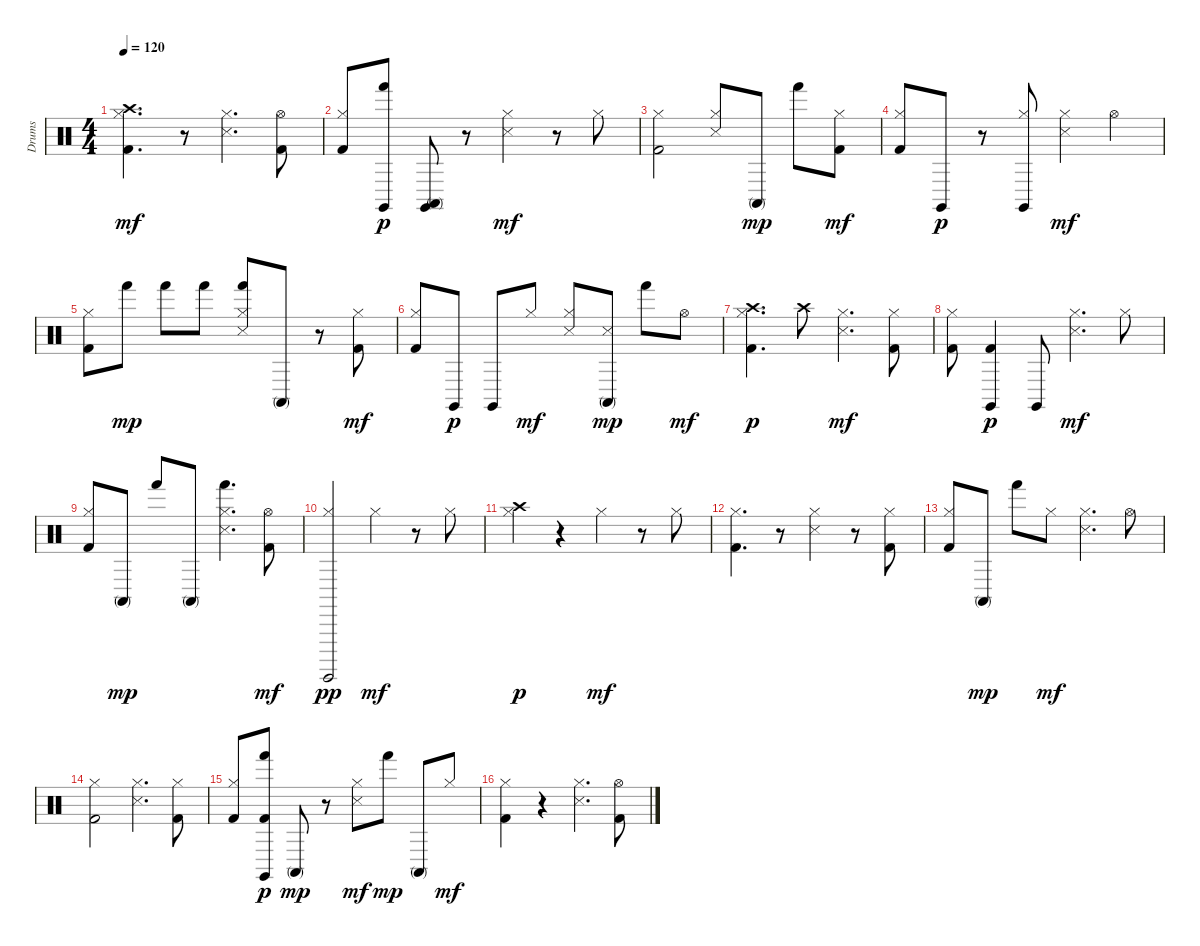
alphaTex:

\track ("Drums" "Drums") {instrument percussion}
\staff {score}
\articulation defaults
\ts (4 4)
\tempo 120
\clef neutral
\ks c
("Crash high (hit)" "Kick (hit) 2" "Hi-Hat (closed)").4{d dy mf} r.8 ("Hi-Hat (closed)" "Snare (side stick) 3").4{d} ("Kick (hit) 2" "Hi-Hat (open)").8 |
("Kick (hit) 2" "Hi-Hat (closed)").8 ("Hand (hit)" "Claves (hit)").8{dy p} ("Conga high (mute)" "Claves (hit)").8 r.8 ("Hi-Hat (closed)" "Snare (side stick) 3").4{dy mf} r.8 "Hi-Hat (closed)".8 |
("Kick (hit) 2" "Hi-Hat (closed)").2 ("Hi-Hat (closed)" "Snare (side stick) 3").8 "Conga high (mute)".8{dy mp} "Hand (hit)".8 ("Kick (hit) 2" "Hi-Hat (closed)").8{dy mf} |
("Kick (hit) 2" "Hi-Hat (closed)").8 "Claves (hit)".8{dy p} r.8 ("Hi-Hat (closed)" "Claves (hit)").8 ("Hi-Hat (closed)" "Snare (side stick) 3").4{dy mf} "Hi-Hat (open)".4 |
("Kick (hit) 2" "Hi-Hat (closed)").8 "Hand (hit)".8{dy mp} "Hand (hit)".8 "Hand (hit)".8 ("Hi-Hat (closed)" "Snare (side stick) 3" "Hand (hit)").8 "Conga high (mute)".8 r.8 ("Kick (hit) 2" "Hi-Hat (closed)").8{dy mf} |
("Kick (hit) 2" "Hi-Hat (closed)").8 "Claves (hit)".8{dy p} "Claves (hit)".8 "Hi-Hat (closed)".8{dy mf} ("Hi-Hat (closed)" "Snare (side stick) 3").8 ("Snare (side stick) 3" "Conga high (mute)").8{dy mp} "Hand (hit)".8 "Hi-Hat (open)".8{dy mf} |
("Kick (hit) 2" "Hi-Hat (closed)" "Crash high (hit)").4{d dy p} "Crash high (hit)".8 ("Hi-Hat (closed)" "Snare (side stick) 3").4{d dy mf} ("Kick (hit) 2" "Hi-Hat (closed)").8 |
("Kick (hit) 2" "Hi-Hat (closed)").8 ("Kick (hit) 2" "Claves (hit)").4{dy p} "Claves (hit)".8 ("Hi-Hat (closed)" "Snare (side stick) 3").4{d dy mf} "Hi-Hat (closed)".8 |
("Kick (hit) 2" "Hi-Hat (closed)").8 "Conga high (mute)".8{dy mp} "Hand (hit)".8 "Conga high (mute)".8 ("Hi-Hat (closed)" "Snare (side stick) 3" "Hand (hit)").4{d} ("Kick (hit) 2" "Hi-Hat (open)").8{dy mf} |
("Hi-Hat (closed)" "Surdo (hit)").2{dy pp} "Hi-Hat (closed)".4{dy mf} r.8 "Hi-Hat (closed)".8 |
("Hi-Hat (closed)" "Crash high (hit)").4{dy p} r.4 "Hi-Hat (closed)".4{dy mf} r.8 "Hi-Hat (closed)".8 |
("Kick (hit) 2" "Hi-Hat (closed)").4{d} r.8 ("Hi-Hat (closed)" "Snare (side stick) 3").4 r.8 ("Kick (hit) 2" "Hi-Hat (closed)").8 |
("Kick (hit) 2" "Hi-Hat (closed)").8 "Conga high (mute)".8{dy mp} "Hand (hit)".8 "Hi-Hat (closed)".8{dy mf} ("Hi-Hat (closed)" "Snare (side stick) 3").4{d} "Hi-Hat (open)".8 |
("Kick (hit) 2" "Hi-Hat (closed)").2 ("Hi-Hat (closed)" "Snare (side stick) 3").4{d} ("Kick (hit) 2" "Hi-Hat (closed)").8 |
("Kick (hit) 2" "Hi-Hat (closed)").8 ("Kick (hit) 2" "Hand (hit)" "Claves (hit)").8{dy p} "Conga high (mute)".8{dy mp} r.8 ("Hi-Hat (closed)" "Snare (side stick) 3").8{dy mf} "Hand (hit)".8{dy mp} "Conga high (mute)".8 "Hi-Hat (closed)".8{dy mf} |
("Kick (hit) 2" "Hi-Hat (closed)").4 r.4 ("Hi-Hat (closed)" "Snare (side stick) 3").4{d} ("Kick (hit) 2" "Hi-Hat (open)").8
